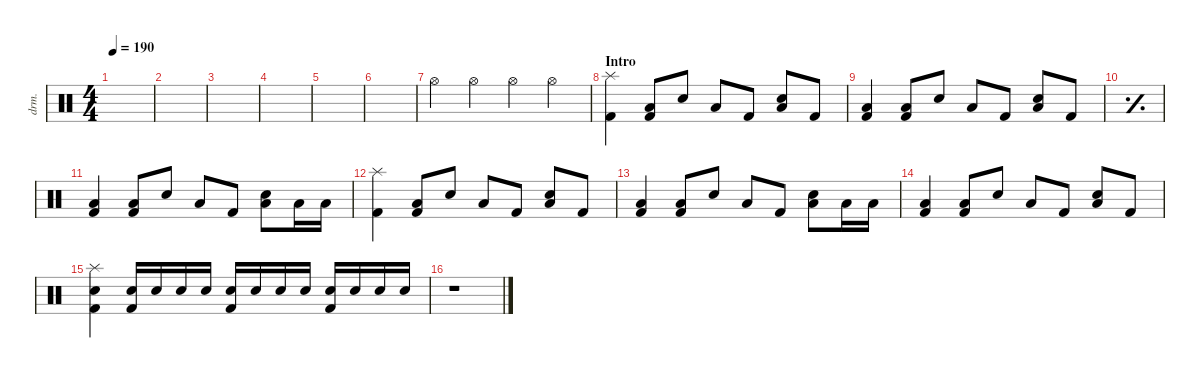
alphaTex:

\defaultSystemsLayout 4
\hideDynamics
\bracketExtendMode nobrackets
\track ("伊地知虹夏" "drm.") {instrument percussion}
\staff {score}
\articulation defaults
\ts (4 4)
\tempo 190
\clef neutral
\ks c
|
|
|
|
|
|
"Hi-Hat (open)".4{beam Down} "Hi-Hat (open)".4{beam Down} "Hi-Hat (open)".4{beam Down} "Hi-Hat (open)".4{beam Down} |
\section ("" "Intro")
("Splash (hit)" "Kick (hit) 2").4{beam Down} ("Kick (hit) 2" "Low Tom (hit)").8{beam Up} "Snare (hit) 2".8{beam Up} "Low Tom (hit)".8{beam Up} "Kick (hit) 2".8{beam Up} ("Low Tom (hit)" "Snare (hit) 2").8{beam Up} "Kick (hit) 2".8{beam Up} |
("Kick (hit) 2" "Low Tom (hit)").4{beam Up} ("Kick (hit) 2" "Low Tom (hit)").8{beam Up} "Snare (hit) 2".8{beam Up} "Low Tom (hit)".8{beam Up} "Kick (hit) 2".8{beam Up} ("Low Tom (hit)" "Snare (hit) 2").8{beam Up} "Kick (hit) 2".8{beam Up} |
\simile simple
|
\simile none
("Kick (hit) 2" "Low Tom (hit)").4{beam Up} ("Kick (hit) 2" "Low Tom (hit)").8{beam Up} "Snare (hit) 2".8{beam Up} "Low Tom (hit)".8{beam Up} "Kick (hit) 2".8{beam Up} ("Low Tom (hit)" "Snare (hit) 2").8{beam Down} "Low Tom (hit)".16{beam Down} "Low Tom (hit)".16{beam Down} |
("Splash (hit)" "Kick (hit) 2").4{beam Down} ("Kick (hit) 2" "Low Tom (hit)").8{beam Up} "Snare (hit) 2".8{beam Up} "Low Tom (hit)".8{beam Up} "Kick (hit) 2".8{beam Up} ("Low Tom (hit)" "Snare (hit) 2").8{beam Up} "Kick (hit) 2".8{beam Up} |
("Kick (hit) 2" "Low Tom (hit)").4{beam Up} ("Kick (hit) 2" "Low Tom (hit)").8{beam Up} "Snare (hit) 2".8{beam Up} "Low Tom (hit)".8{beam Up} "Kick (hit) 2".8{beam Up} ("Low Tom (hit)" "Snare (hit) 2").8{beam Down} "Low Tom (hit)".16{beam Down} "Low Tom (hit)".16{beam Down} |
("Kick (hit) 2" "Low Tom (hit)").4{beam Up} ("Kick (hit) 2" "Low Tom (hit)").8{beam Up} "Snare (hit) 2".8{beam Up} "Low Tom (hit)".8{beam Up} "Kick (hit) 2".8{beam Up} ("Low Tom (hit)" "Snare (hit) 2").8{beam Up} "Kick (hit) 2".8{beam Up} |
("Kick (hit) 2" "Snare (hit) 2" "Splash (hit)").4{beam Down} ("Snare (hit) 2" "Kick (hit) 2").16{beam Up} "Snare (hit) 2".16{beam Up} "Snare (hit) 2".16{beam Up} "Snare (hit) 2".16{beam Up} ("Snare (hit) 2" "Kick (hit) 2").16{beam Up} "Snare (hit) 2".16{beam Up} "Snare (hit) 2".16{beam Up} "Snare (hit) 2".16{beam Up} ("Snare (hit) 2" "Kick (hit) 2").16{beam Up} "Snare (hit) 2".16{beam Up} "Snare (hit) 2".16{beam Up} "Snare (hit) 2".16{beam Up} |
r.1{beam Down}
